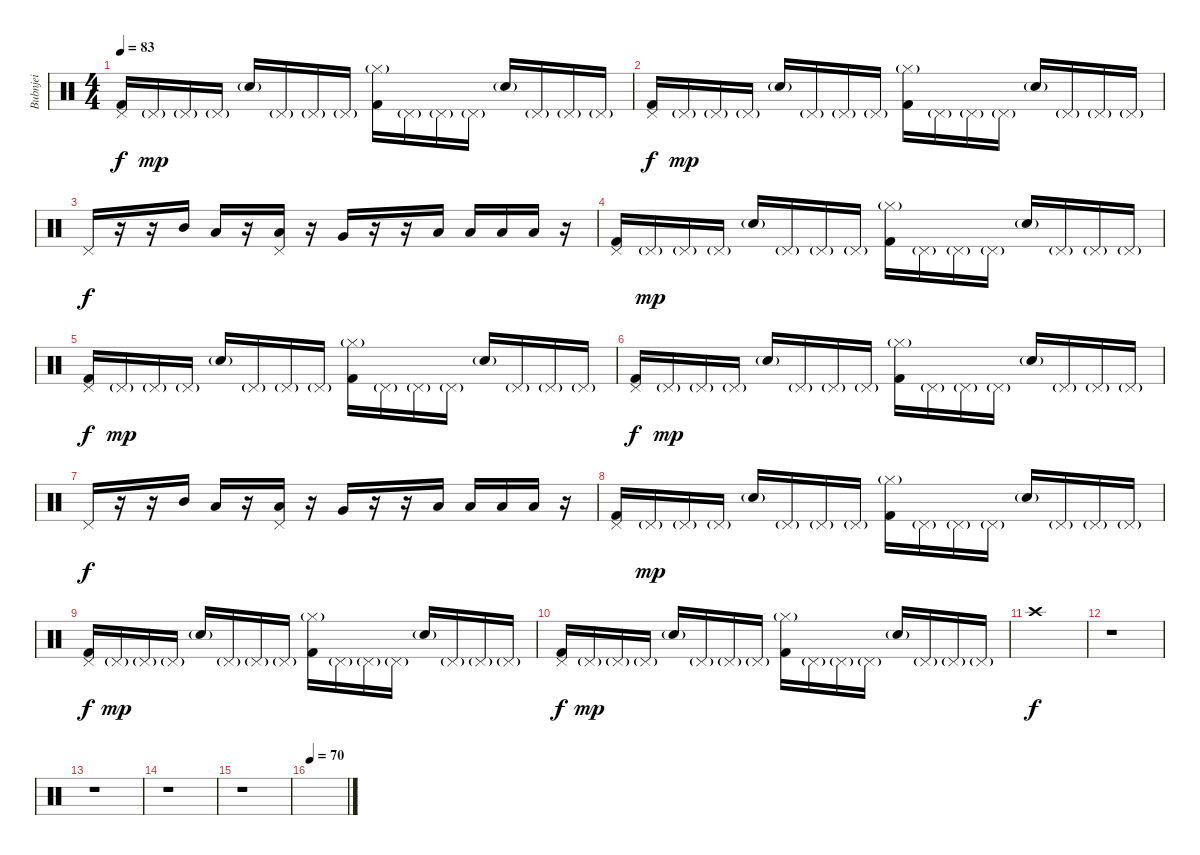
\track ("Bubnjei" "Bubnjei") {instrument percussion}
\staff {score}
\articulation defaults
\ts (4 4)
\tempo 83
\clef neutral
\ks c
("Pedal Hi-Hat (hit)" "Kick (hit) 2").16{dy f} "Pedal Hi-Hat (hit)"{g}.16{dy mp} "Pedal Hi-Hat (hit)"{g}.16 "Pedal Hi-Hat (hit)"{g}.16 "Snare (hit) 2"{g}.16 "Pedal Hi-Hat (hit)"{g}.16 "Pedal Hi-Hat (hit)"{g}.16 "Pedal Hi-Hat (hit)"{g}.16 ("Hi-Hat (closed)"{g} "Kick (hit) 2").16 "Pedal Hi-Hat (hit)"{g}.16 "Pedal Hi-Hat (hit)"{g}.16 "Pedal Hi-Hat (hit)"{g}.16 "Snare (hit) 2"{g}.16 "Pedal Hi-Hat (hit)"{g}.16 "Pedal Hi-Hat (hit)"{g}.16 "Pedal Hi-Hat (hit)"{g}.16 |
("Pedal Hi-Hat (hit)" "Kick (hit) 2").16{dy f} "Pedal Hi-Hat (hit)"{g}.16{dy mp} "Pedal Hi-Hat (hit)"{g}.16 "Pedal Hi-Hat (hit)"{g}.16 "Snare (hit) 2"{g}.16 "Pedal Hi-Hat (hit)"{g}.16 "Pedal Hi-Hat (hit)"{g}.16 "Pedal Hi-Hat (hit)"{g}.16 ("Hi-Hat (closed)"{g} "Kick (hit) 2").16 "Pedal Hi-Hat (hit)"{g}.16 "Pedal Hi-Hat (hit)"{g}.16 "Pedal Hi-Hat (hit)"{g}.16 "Snare (hit) 2"{g}.16 "Pedal Hi-Hat (hit)"{g}.16 "Pedal Hi-Hat (hit)"{g}.16 "Pedal Hi-Hat (hit)"{g}.16 |
"Pedal Hi-Hat (hit)".16{dy f} r.16 r.16 "Mid Tom (hit)".16 "Low Tom (hit)".16 r.16 ("Pedal Hi-Hat (hit)" "Low Tom (hit)").16 r.16 "Very Low Tom (hit)".16 r.16 r.16 "Low Floor Tom (hit)".16 "Low Floor Tom (hit)".16 "Low Floor Tom (hit)".16 "Low Floor Tom (hit)".16 r.16 |
("Pedal Hi-Hat (hit)" "Kick (hit) 2").16 "Pedal Hi-Hat (hit)"{g}.16{dy mp} "Pedal Hi-Hat (hit)"{g}.16 "Pedal Hi-Hat (hit)"{g}.16 "Snare (hit) 2"{g}.16 "Pedal Hi-Hat (hit)"{g}.16 "Pedal Hi-Hat (hit)"{g}.16 "Pedal Hi-Hat (hit)"{g}.16 ("Hi-Hat (closed)"{g} "Kick (hit) 2").16 "Pedal Hi-Hat (hit)"{g}.16 "Pedal Hi-Hat (hit)"{g}.16 "Pedal Hi-Hat (hit)"{g}.16 "Snare (hit) 2"{g}.16 "Pedal Hi-Hat (hit)"{g}.16 "Pedal Hi-Hat (hit)"{g}.16 "Pedal Hi-Hat (hit)"{g}.16 |
("Pedal Hi-Hat (hit)" "Kick (hit) 2").16{dy f} "Pedal Hi-Hat (hit)"{g}.16{dy mp} "Pedal Hi-Hat (hit)"{g}.16 "Pedal Hi-Hat (hit)"{g}.16 "Snare (hit) 2"{g}.16 "Pedal Hi-Hat (hit)"{g}.16 "Pedal Hi-Hat (hit)"{g}.16 "Pedal Hi-Hat (hit)"{g}.16 ("Hi-Hat (closed)"{g} "Kick (hit) 2").16 "Pedal Hi-Hat (hit)"{g}.16 "Pedal Hi-Hat (hit)"{g}.16 "Pedal Hi-Hat (hit)"{g}.16 "Snare (hit) 2"{g}.16 "Pedal Hi-Hat (hit)"{g}.16 "Pedal Hi-Hat (hit)"{g}.16 "Pedal Hi-Hat (hit)"{g}.16 |
("Pedal Hi-Hat (hit)" "Kick (hit) 2").16{dy f} "Pedal Hi-Hat (hit)"{g}.16{dy mp} "Pedal Hi-Hat (hit)"{g}.16 "Pedal Hi-Hat (hit)"{g}.16 "Snare (hit) 2"{g}.16 "Pedal Hi-Hat (hit)"{g}.16 "Pedal Hi-Hat (hit)"{g}.16 "Pedal Hi-Hat (hit)"{g}.16 ("Hi-Hat (closed)"{g} "Kick (hit) 2").16 "Pedal Hi-Hat (hit)"{g}.16 "Pedal Hi-Hat (hit)"{g}.16 "Pedal Hi-Hat (hit)"{g}.16 "Snare (hit) 2"{g}.16 "Pedal Hi-Hat (hit)"{g}.16 "Pedal Hi-Hat (hit)"{g}.16 "Pedal Hi-Hat (hit)"{g}.16 |
"Pedal Hi-Hat (hit)".16{dy f} r.16 r.16 "Mid Tom (hit)".16 "Low Tom (hit)".16 r.16 ("Pedal Hi-Hat (hit)" "Low Tom (hit)").16 r.16 "Very Low Tom (hit)".16 r.16 r.16 "Low Floor Tom (hit)".16 "Low Floor Tom (hit)".16 "Low Floor Tom (hit)".16 "Low Floor Tom (hit)".16 r.16 |
("Pedal Hi-Hat (hit)" "Kick (hit) 2").16 "Pedal Hi-Hat (hit)"{g}.16{dy mp} "Pedal Hi-Hat (hit)"{g}.16 "Pedal Hi-Hat (hit)"{g}.16 "Snare (hit) 2"{g}.16 "Pedal Hi-Hat (hit)"{g}.16 "Pedal Hi-Hat (hit)"{g}.16 "Pedal Hi-Hat (hit)"{g}.16 ("Hi-Hat (closed)"{g} "Kick (hit) 2").16 "Pedal Hi-Hat (hit)"{g}.16 "Pedal Hi-Hat (hit)"{g}.16 "Pedal Hi-Hat (hit)"{g}.16 "Snare (hit) 2"{g}.16 "Pedal Hi-Hat (hit)"{g}.16 "Pedal Hi-Hat (hit)"{g}.16 "Pedal Hi-Hat (hit)"{g}.16 |
("Pedal Hi-Hat (hit)" "Kick (hit) 2").16{dy f} "Pedal Hi-Hat (hit)"{g}.16{dy mp} "Pedal Hi-Hat (hit)"{g}.16 "Pedal Hi-Hat (hit)"{g}.16 "Snare (hit) 2"{g}.16 "Pedal Hi-Hat (hit)"{g}.16 "Pedal Hi-Hat (hit)"{g}.16 "Pedal Hi-Hat (hit)"{g}.16 ("Hi-Hat (closed)"{g} "Kick (hit) 2").16 "Pedal Hi-Hat (hit)"{g}.16 "Pedal Hi-Hat (hit)"{g}.16 "Pedal Hi-Hat (hit)"{g}.16 "Snare (hit) 2"{g}.16 "Pedal Hi-Hat (hit)"{g}.16 "Pedal Hi-Hat (hit)"{g}.16 "Pedal Hi-Hat (hit)"{g}.16 |
("Pedal Hi-Hat (hit)" "Kick (hit) 2").16{dy f} "Pedal Hi-Hat (hit)"{g}.16{dy mp} "Pedal Hi-Hat (hit)"{g}.16 "Pedal Hi-Hat (hit)"{g}.16 "Snare (hit) 2"{g}.16 "Pedal Hi-Hat (hit)"{g}.16 "Pedal Hi-Hat (hit)"{g}.16 "Pedal Hi-Hat (hit)"{g}.16 ("Hi-Hat (closed)"{g} "Kick (hit) 2").16 "Pedal Hi-Hat (hit)"{g}.16 "Pedal Hi-Hat (hit)"{g}.16 "Pedal Hi-Hat (hit)"{g}.16 "Snare (hit) 2"{g}.16 "Pedal Hi-Hat (hit)"{g}.16 "Pedal Hi-Hat (hit)"{g}.16 "Pedal Hi-Hat (hit)"{g}.16 |
"Crash high (hit)".1{dy f} |
r.1 |
r.1 |
r.1 |
r.1 |
\tempo 70
